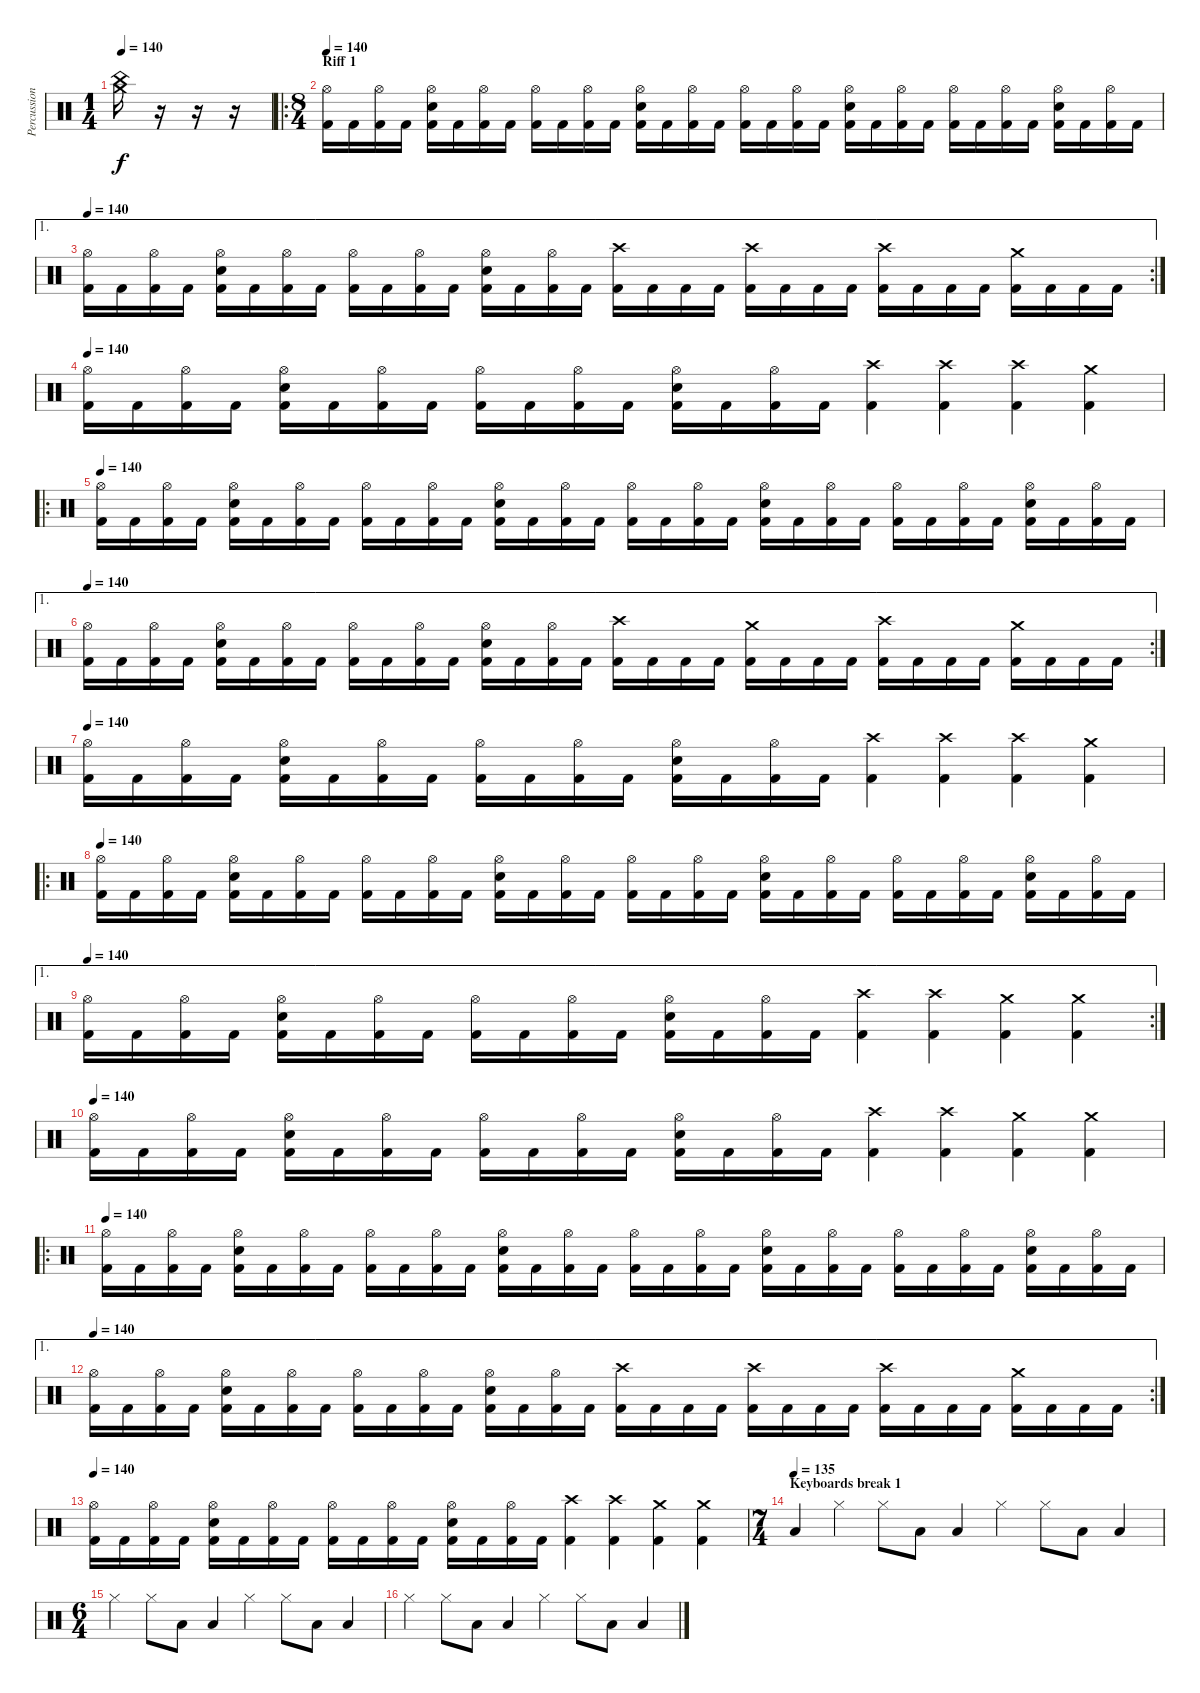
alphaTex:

\track ("Percussion" "Percussion") {instrument percussion}
\staff {score}
\articulation defaults
\ts (1 4)
\tempo 140
\clef neutral
\ks c
("China (hit)" "Crash medium (hit)").16{dy f} r.16 r.16 r.16 |
\ro
\ts (8 4)
\section ("" "Riff 1")
\tempo 140
("Kick (hit) 2" "Hi-Hat (open)").16 "Kick (hit) 2".16 ("Kick (hit) 2" "Hi-Hat (open)").16 "Kick (hit) 2".16 ("Kick (hit) 2" "Electric Snare (hit)" "Hi-Hat (open)").16 "Kick (hit) 2".16 ("Kick (hit) 2" "Hi-Hat (open)").16 "Kick (hit) 2".16 ("Kick (hit) 2" "Hi-Hat (open)").16 "Kick (hit) 2".16 ("Kick (hit) 2" "Hi-Hat (open)").16 "Kick (hit) 2".16 ("Kick (hit) 2" "Electric Snare (hit)" "Hi-Hat (open)").16 "Kick (hit) 2".16 ("Kick (hit) 2" "Hi-Hat (open)").16 "Kick (hit) 2".16 ("Kick (hit) 2" "Hi-Hat (open)").16 "Kick (hit) 2".16 ("Kick (hit) 2" "Hi-Hat (open)").16 "Kick (hit) 2".16 ("Kick (hit) 2" "Electric Snare (hit)" "Hi-Hat (open)").16 "Kick (hit) 2".16 ("Kick (hit) 2" "Hi-Hat (open)").16 "Kick (hit) 2".16 ("Kick (hit) 2" "Hi-Hat (open)").16 "Kick (hit) 2".16 ("Kick (hit) 2" "Hi-Hat (open)").16 "Kick (hit) 2".16 ("Kick (hit) 2" "Electric Snare (hit)" "Hi-Hat (open)").16 "Kick (hit) 2".16 ("Kick (hit) 2" "Hi-Hat (open)").16 "Kick (hit) 2".16 |
\ae 1
\rc 2
\tempo 140
("Kick (hit) 2" "Hi-Hat (open)").16 "Kick (hit) 2".16 ("Kick (hit) 2" "Hi-Hat (open)").16 "Kick (hit) 2".16 ("Kick (hit) 2" "Electric Snare (hit)" "Hi-Hat (open)").16 "Kick (hit) 2".16 ("Kick (hit) 2" "Hi-Hat (open)").16 "Kick (hit) 2".16 ("Kick (hit) 2" "Hi-Hat (open)").16 "Kick (hit) 2".16 ("Kick (hit) 2" "Hi-Hat (open)").16 "Kick (hit) 2".16 ("Kick (hit) 2" "Electric Snare (hit)" "Hi-Hat (open)").16 "Kick (hit) 2".16 ("Kick (hit) 2" "Hi-Hat (open)").16 "Kick (hit) 2".16 ("Kick (hit) 2" "Crash high (hit)").16 "Kick (hit) 2".16 "Kick (hit) 2".16 "Kick (hit) 2".16 ("Kick (hit) 2" "Crash high (hit)").16 "Kick (hit) 2".16 "Kick (hit) 2".16 "Kick (hit) 2".16 ("Kick (hit) 2" "Crash high (hit)").16 "Kick (hit) 2".16 "Kick (hit) 2".16 "Kick (hit) 2".16 ("Kick (hit) 2" "Crash medium (hit)").16 "Kick (hit) 2".16 "Kick (hit) 2".16 "Kick (hit) 2".16 |
\tempo 140
("Kick (hit) 2" "Hi-Hat (open)").16 "Kick (hit) 2".16 ("Kick (hit) 2" "Hi-Hat (open)").16 "Kick (hit) 2".16 ("Kick (hit) 2" "Electric Snare (hit)" "Hi-Hat (open)").16 "Kick (hit) 2".16 ("Kick (hit) 2" "Hi-Hat (open)").16 "Kick (hit) 2".16 ("Kick (hit) 2" "Hi-Hat (open)").16 "Kick (hit) 2".16 ("Kick (hit) 2" "Hi-Hat (open)").16 "Kick (hit) 2".16 ("Kick (hit) 2" "Electric Snare (hit)" "Hi-Hat (open)").16 "Kick (hit) 2".16 ("Kick (hit) 2" "Hi-Hat (open)").16 "Kick (hit) 2".16 ("Kick (hit) 2" "Crash high (hit)").4 ("Kick (hit) 2" "Crash high (hit)").4 ("Kick (hit) 2" "Crash high (hit)").4 ("Kick (hit) 2" "Crash medium (hit)").4 |
\ro
\tempo 140
("Kick (hit) 2" "Hi-Hat (open)").16 "Kick (hit) 2".16 ("Kick (hit) 2" "Hi-Hat (open)").16 "Kick (hit) 2".16 ("Kick (hit) 2" "Electric Snare (hit)" "Hi-Hat (open)").16 "Kick (hit) 2".16 ("Kick (hit) 2" "Hi-Hat (open)").16 "Kick (hit) 2".16 ("Kick (hit) 2" "Hi-Hat (open)").16 "Kick (hit) 2".16 ("Kick (hit) 2" "Hi-Hat (open)").16 "Kick (hit) 2".16 ("Kick (hit) 2" "Electric Snare (hit)" "Hi-Hat (open)").16 "Kick (hit) 2".16 ("Kick (hit) 2" "Hi-Hat (open)").16 "Kick (hit) 2".16 ("Kick (hit) 2" "Hi-Hat (open)").16 "Kick (hit) 2".16 ("Kick (hit) 2" "Hi-Hat (open)").16 "Kick (hit) 2".16 ("Kick (hit) 2" "Electric Snare (hit)" "Hi-Hat (open)").16 "Kick (hit) 2".16 ("Kick (hit) 2" "Hi-Hat (open)").16 "Kick (hit) 2".16 ("Kick (hit) 2" "Hi-Hat (open)").16 "Kick (hit) 2".16 ("Kick (hit) 2" "Hi-Hat (open)").16 "Kick (hit) 2".16 ("Kick (hit) 2" "Electric Snare (hit)" "Hi-Hat (open)").16 "Kick (hit) 2".16 ("Kick (hit) 2" "Hi-Hat (open)").16 "Kick (hit) 2".16 |
\ae 1
\rc 2
\tempo 140
("Kick (hit) 2" "Hi-Hat (open)").16 "Kick (hit) 2".16 ("Kick (hit) 2" "Hi-Hat (open)").16 "Kick (hit) 2".16 ("Kick (hit) 2" "Electric Snare (hit)" "Hi-Hat (open)").16 "Kick (hit) 2".16 ("Kick (hit) 2" "Hi-Hat (open)").16 "Kick (hit) 2".16 ("Kick (hit) 2" "Hi-Hat (open)").16 "Kick (hit) 2".16 ("Kick (hit) 2" "Hi-Hat (open)").16 "Kick (hit) 2".16 ("Kick (hit) 2" "Electric Snare (hit)" "Hi-Hat (open)").16 "Kick (hit) 2".16 ("Kick (hit) 2" "Hi-Hat (open)").16 "Kick (hit) 2".16 ("Kick (hit) 2" "Crash high (hit)").16 "Kick (hit) 2".16 "Kick (hit) 2".16 "Kick (hit) 2".16 ("Kick (hit) 2" "Crash medium (hit)").16 "Kick (hit) 2".16 "Kick (hit) 2".16 "Kick (hit) 2".16 ("Kick (hit) 2" "Crash high (hit)").16 "Kick (hit) 2".16 "Kick (hit) 2".16 "Kick (hit) 2".16 ("Kick (hit) 2" "Crash medium (hit)").16 "Kick (hit) 2".16 "Kick (hit) 2".16 "Kick (hit) 2".16 |
\tempo 140
("Kick (hit) 2" "Hi-Hat (open)").16 "Kick (hit) 2".16 ("Kick (hit) 2" "Hi-Hat (open)").16 "Kick (hit) 2".16 ("Kick (hit) 2" "Electric Snare (hit)" "Hi-Hat (open)").16 "Kick (hit) 2".16 ("Kick (hit) 2" "Hi-Hat (open)").16 "Kick (hit) 2".16 ("Kick (hit) 2" "Hi-Hat (open)").16 "Kick (hit) 2".16 ("Kick (hit) 2" "Hi-Hat (open)").16 "Kick (hit) 2".16 ("Kick (hit) 2" "Electric Snare (hit)" "Hi-Hat (open)").16 "Kick (hit) 2".16 ("Kick (hit) 2" "Hi-Hat (open)").16 "Kick (hit) 2".16 ("Kick (hit) 2" "Crash high (hit)").4 ("Kick (hit) 2" "Crash high (hit)").4 ("Kick (hit) 2" "Crash high (hit)").4 ("Kick (hit) 2" "Crash medium (hit)").4 |
\ro
\tempo 140
("Kick (hit) 2" "Hi-Hat (open)").16 "Kick (hit) 2".16 ("Kick (hit) 2" "Hi-Hat (open)").16 "Kick (hit) 2".16 ("Kick (hit) 2" "Electric Snare (hit)" "Hi-Hat (open)").16 "Kick (hit) 2".16 ("Kick (hit) 2" "Hi-Hat (open)").16 "Kick (hit) 2".16 ("Kick (hit) 2" "Hi-Hat (open)").16 "Kick (hit) 2".16 ("Kick (hit) 2" "Hi-Hat (open)").16 "Kick (hit) 2".16 ("Kick (hit) 2" "Electric Snare (hit)" "Hi-Hat (open)").16 "Kick (hit) 2".16 ("Kick (hit) 2" "Hi-Hat (open)").16 "Kick (hit) 2".16 ("Kick (hit) 2" "Hi-Hat (open)").16 "Kick (hit) 2".16 ("Kick (hit) 2" "Hi-Hat (open)").16 "Kick (hit) 2".16 ("Kick (hit) 2" "Electric Snare (hit)" "Hi-Hat (open)").16 "Kick (hit) 2".16 ("Kick (hit) 2" "Hi-Hat (open)").16 "Kick (hit) 2".16 ("Kick (hit) 2" "Hi-Hat (open)").16 "Kick (hit) 2".16 ("Kick (hit) 2" "Hi-Hat (open)").16 "Kick (hit) 2".16 ("Kick (hit) 2" "Electric Snare (hit)" "Hi-Hat (open)").16 "Kick (hit) 2".16 ("Kick (hit) 2" "Hi-Hat (open)").16 "Kick (hit) 2".16 |
\ae 1
\rc 2
\tempo 140
("Kick (hit) 2" "Hi-Hat (open)").16 "Kick (hit) 2".16 ("Kick (hit) 2" "Hi-Hat (open)").16 "Kick (hit) 2".16 ("Kick (hit) 2" "Electric Snare (hit)" "Hi-Hat (open)").16 "Kick (hit) 2".16 ("Kick (hit) 2" "Hi-Hat (open)").16 "Kick (hit) 2".16 ("Kick (hit) 2" "Hi-Hat (open)").16 "Kick (hit) 2".16 ("Kick (hit) 2" "Hi-Hat (open)").16 "Kick (hit) 2".16 ("Kick (hit) 2" "Electric Snare (hit)" "Hi-Hat (open)").16 "Kick (hit) 2".16 ("Kick (hit) 2" "Hi-Hat (open)").16 "Kick (hit) 2".16 ("Kick (hit) 2" "Crash high (hit)").4 ("Kick (hit) 2" "Crash high (hit)").4 ("Kick (hit) 2" "Crash medium (hit)").4 ("Kick (hit) 2" "Crash medium (hit)").4 |
\tempo 140
("Kick (hit) 2" "Hi-Hat (open)").16 "Kick (hit) 2".16 ("Kick (hit) 2" "Hi-Hat (open)").16 "Kick (hit) 2".16 ("Kick (hit) 2" "Electric Snare (hit)" "Hi-Hat (open)").16 "Kick (hit) 2".16 ("Kick (hit) 2" "Hi-Hat (open)").16 "Kick (hit) 2".16 ("Kick (hit) 2" "Hi-Hat (open)").16 "Kick (hit) 2".16 ("Kick (hit) 2" "Hi-Hat (open)").16 "Kick (hit) 2".16 ("Kick (hit) 2" "Electric Snare (hit)" "Hi-Hat (open)").16 "Kick (hit) 2".16 ("Kick (hit) 2" "Hi-Hat (open)").16 "Kick (hit) 2".16 ("Kick (hit) 2" "Crash high (hit)").4 ("Kick (hit) 2" "Crash high (hit)").4 ("Kick (hit) 2" "Crash medium (hit)").4 ("Kick (hit) 2" "Crash medium (hit)").4 |
\ro
\tempo 140
("Kick (hit) 2" "Hi-Hat (open)").16 "Kick (hit) 2".16 ("Kick (hit) 2" "Hi-Hat (open)").16 "Kick (hit) 2".16 ("Kick (hit) 2" "Electric Snare (hit)" "Hi-Hat (open)").16 "Kick (hit) 2".16 ("Kick (hit) 2" "Hi-Hat (open)").16 "Kick (hit) 2".16 ("Kick (hit) 2" "Hi-Hat (open)").16 "Kick (hit) 2".16 ("Kick (hit) 2" "Hi-Hat (open)").16 "Kick (hit) 2".16 ("Kick (hit) 2" "Electric Snare (hit)" "Hi-Hat (open)").16 "Kick (hit) 2".16 ("Kick (hit) 2" "Hi-Hat (open)").16 "Kick (hit) 2".16 ("Kick (hit) 2" "Hi-Hat (open)").16 "Kick (hit) 2".16 ("Kick (hit) 2" "Hi-Hat (open)").16 "Kick (hit) 2".16 ("Kick (hit) 2" "Electric Snare (hit)" "Hi-Hat (open)").16 "Kick (hit) 2".16 ("Kick (hit) 2" "Hi-Hat (open)").16 "Kick (hit) 2".16 ("Kick (hit) 2" "Hi-Hat (open)").16 "Kick (hit) 2".16 ("Kick (hit) 2" "Hi-Hat (open)").16 "Kick (hit) 2".16 ("Kick (hit) 2" "Electric Snare (hit)" "Hi-Hat (open)").16 "Kick (hit) 2".16 ("Kick (hit) 2" "Hi-Hat (open)").16 "Kick (hit) 2".16 |
\ae 1
\rc 2
\tempo 140
("Kick (hit) 2" "Hi-Hat (open)").16 "Kick (hit) 2".16 ("Kick (hit) 2" "Hi-Hat (open)").16 "Kick (hit) 2".16 ("Kick (hit) 2" "Electric Snare (hit)" "Hi-Hat (open)").16 "Kick (hit) 2".16 ("Kick (hit) 2" "Hi-Hat (open)").16 "Kick (hit) 2".16 ("Kick (hit) 2" "Hi-Hat (open)").16 "Kick (hit) 2".16 ("Kick (hit) 2" "Hi-Hat (open)").16 "Kick (hit) 2".16 ("Kick (hit) 2" "Electric Snare (hit)" "Hi-Hat (open)").16 "Kick (hit) 2".16 ("Kick (hit) 2" "Hi-Hat (open)").16 "Kick (hit) 2".16 ("Kick (hit) 2" "Crash high (hit)").16 "Kick (hit) 2".16 "Kick (hit) 2".16 "Kick (hit) 2".16 ("Kick (hit) 2" "Crash high (hit)").16 "Kick (hit) 2".16 "Kick (hit) 2".16 "Kick (hit) 2".16 ("Kick (hit) 2" "Crash high (hit)").16 "Kick (hit) 2".16 "Kick (hit) 2".16 "Kick (hit) 2".16 ("Kick (hit) 2" "Crash medium (hit)").16 "Kick (hit) 2".16 "Kick (hit) 2".16 "Kick (hit) 2".16 |
\tempo 140
("Kick (hit) 2" "Hi-Hat (open)").16 "Kick (hit) 2".16 ("Kick (hit) 2" "Hi-Hat (open)").16 "Kick (hit) 2".16 ("Kick (hit) 2" "Electric Snare (hit)" "Hi-Hat (open)").16 "Kick (hit) 2".16 ("Kick (hit) 2" "Hi-Hat (open)").16 "Kick (hit) 2".16 ("Kick (hit) 2" "Hi-Hat (open)").16 "Kick (hit) 2".16 ("Kick (hit) 2" "Hi-Hat (open)").16 "Kick (hit) 2".16 ("Kick (hit) 2" "Electric Snare (hit)" "Hi-Hat (open)").16 "Kick (hit) 2".16 ("Kick (hit) 2" "Hi-Hat (open)").16 "Kick (hit) 2".16 ("Kick (hit) 2" "Crash high (hit)").4 ("Kick (hit) 2" "Crash high (hit)").4 ("Kick (hit) 2" "Crash medium (hit)").4 ("Kick (hit) 2" "Crash medium (hit)").4 |
\ts (7 4)
\section ("" "Keyboards break 1")
\tempo (135)
"Low Floor Tom (hit)".4 "Hi-Hat (closed)".4 "Hi-Hat (closed)".8 "Low Floor Tom (hit)".8 "Low Floor Tom (hit)".4 "Hi-Hat (closed)".4 "Hi-Hat (closed)".8 "Low Floor Tom (hit)".8 "Low Floor Tom (hit)".4 |
\ts (6 4)
"Hi-Hat (closed)".4 "Hi-Hat (closed)".8 "Low Floor Tom (hit)".8 "Low Floor Tom (hit)".4 "Hi-Hat (closed)".4 "Hi-Hat (closed)".8 "Low Floor Tom (hit)".8 "Low Floor Tom (hit)".4 |
"Hi-Hat (closed)".4 "Hi-Hat (closed)".8 "Low Floor Tom (hit)".8 "Low Floor Tom (hit)".4 "Hi-Hat (closed)".4 "Hi-Hat (closed)".8 "Low Floor Tom (hit)".8 "Low Floor Tom (hit)".4
